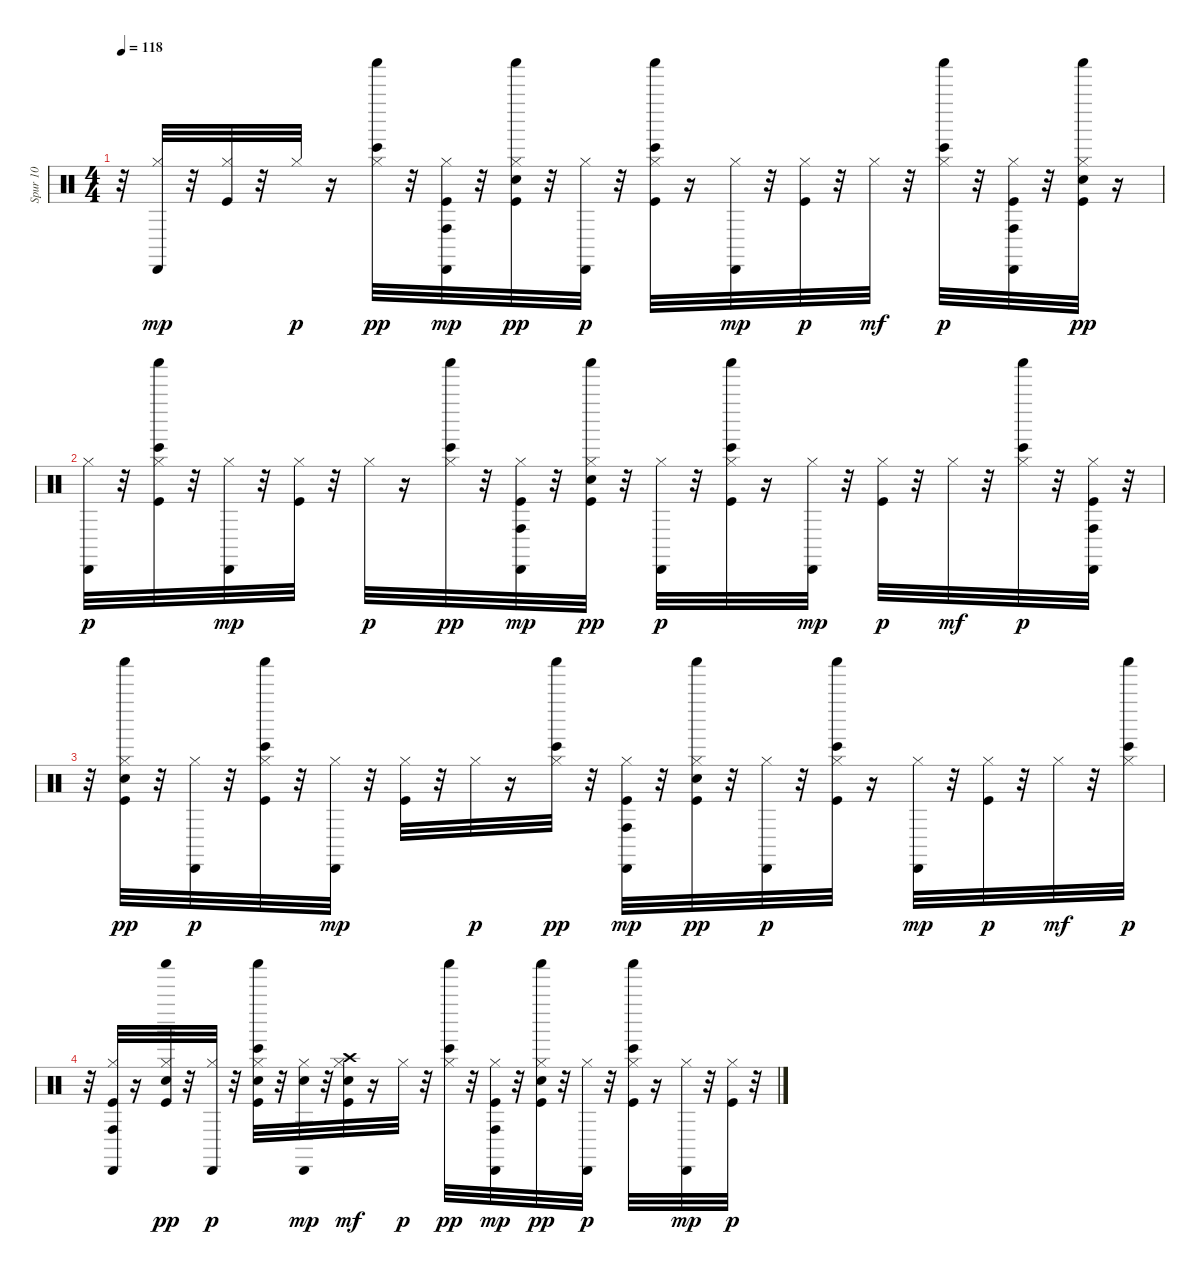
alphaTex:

\track ("Spur 10" "Spur 10") {instrument percussion}
\staff {score}
\articulation defaults
\ts (4 4)
\tempo 118
\clef neutral
\ks c
r.32{dy p} ("Hi-Hat (closed)" "Cabasa (hit)").32{dy mp} r.32 ("Kick (hit)" "Hi-Hat (closed)").32 r.32 "Hi-Hat (closed)".32{dy p} r.16 ("Hi-Hat (closed)" "Bongo High (hit)" "Shaker (hit)").32{dy pp} r.32 ("Kick (hit)" "Hi-Hat (closed)" "Conga high (hit)" "Cabasa (hit)").32{dy mp} r.32 ("Kick (hit)" "Snare (hit) 2" "Hi-Hat (closed)" "Shaker (hit)").32{dy pp} r.32 ("Hi-Hat (closed)" "Cabasa (hit)").32{dy p} r.32 ("Kick (hit)" "Hi-Hat (closed)" "Bongo High (hit)" "Shaker (hit)").32 r.16 ("Hi-Hat (closed)" "Cabasa (hit)").32{dy mp} r.32 ("Kick (hit)" "Hi-Hat (closed)").32{dy p} r.32 "Hi-Hat (closed)".32{dy mf} r.32 ("Hi-Hat (closed)" "Bongo High (hit)" "Shaker (hit)").32{dy p} r.32 ("Kick (hit)" "Hi-Hat (closed)" "Conga high (hit)" "Cabasa (hit)").32 r.32 ("Kick (hit)" "Snare (hit) 2" "Hi-Hat (closed)" "Shaker (hit)").32{dy pp} r.16 |
("Hi-Hat (closed)" "Cabasa (hit)").32{dy p} r.32 ("Kick (hit)" "Hi-Hat (closed)" "Bongo High (hit)" "Shaker (hit)").32 r.32 ("Hi-Hat (closed)" "Cabasa (hit)").32{dy mp} r.32 ("Kick (hit)" "Hi-Hat (closed)").32 r.32 "Hi-Hat (closed)".32{dy p} r.16 ("Hi-Hat (closed)" "Bongo High (hit)" "Shaker (hit)").32{dy pp} r.32 ("Kick (hit)" "Hi-Hat (closed)" "Conga high (hit)" "Cabasa (hit)").32{dy mp} r.32 ("Kick (hit)" "Snare (hit) 2" "Hi-Hat (closed)" "Shaker (hit)").32{dy pp} r.32 ("Hi-Hat (closed)" "Cabasa (hit)").32{dy p} r.32 ("Kick (hit)" "Hi-Hat (closed)" "Bongo High (hit)" "Shaker (hit)").32 r.16 ("Hi-Hat (closed)" "Cabasa (hit)").32{dy mp} r.32 ("Kick (hit)" "Hi-Hat (closed)").32{dy p} r.32 "Hi-Hat (closed)".32{dy mf} r.32 ("Hi-Hat (closed)" "Bongo High (hit)" "Shaker (hit)").32{dy p} r.32 ("Kick (hit)" "Hi-Hat (closed)" "Conga high (hit)" "Cabasa (hit)").32 r.32 |
r.32 ("Kick (hit)" "Snare (hit) 2" "Hi-Hat (closed)" "Shaker (hit)").32{dy pp} r.32 ("Hi-Hat (closed)" "Cabasa (hit)").32{dy p} r.32 ("Kick (hit)" "Hi-Hat (closed)" "Bongo High (hit)" "Shaker (hit)").32 r.32 ("Hi-Hat (closed)" "Cabasa (hit)").32{dy mp} r.32 ("Kick (hit)" "Hi-Hat (closed)").32 r.32 "Hi-Hat (closed)".32{dy p} r.16 ("Hi-Hat (closed)" "Bongo High (hit)" "Shaker (hit)").32{dy pp} r.32 ("Kick (hit)" "Hi-Hat (closed)" "Conga high (hit)" "Cabasa (hit)").32{dy mp} r.32 ("Kick (hit)" "Snare (hit) 2" "Hi-Hat (closed)" "Shaker (hit)").32{dy pp} r.32 ("Hi-Hat (closed)" "Cabasa (hit)").32{dy p} r.32 ("Kick (hit)" "Hi-Hat (closed)" "Bongo High (hit)" "Shaker (hit)").32 r.16 ("Hi-Hat (closed)" "Cabasa (hit)").32{dy mp} r.32 ("Kick (hit)" "Hi-Hat (closed)").32{dy p} r.32 "Hi-Hat (closed)".32{dy mf} r.32 ("Hi-Hat (closed)" "Bongo High (hit)" "Shaker (hit)").32{dy p} |
r.32 ("Kick (hit)" "Hi-Hat (closed)" "Conga high (hit)" "Cabasa (hit)").32 r.16 ("Kick (hit)" "Snare (hit) 2" "Hi-Hat (closed)" "Shaker (hit)").32{dy pp} r.32 ("Hi-Hat (closed)" "Cabasa (hit)").32{dy p} r.32 ("Kick (hit)" "Snare (hit) 2" "Hi-Hat (closed)" "Bongo High (hit)" "Shaker (hit)").32 r.32 ("Snare (hit) 2" "Hi-Hat (closed)" "Cabasa (hit)").32{dy mp} r.32 ("Kick (hit)" "Snare (hit) 2" "Hi-Hat (closed)" "Crash high (hit)").32{dy mf} r.16 "Hi-Hat (closed)".32{dy p} r.32 ("Hi-Hat (closed)" "Bongo High (hit)" "Shaker (hit)").32{dy pp} r.32 ("Kick (hit)" "Hi-Hat (closed)" "Conga high (hit)" "Cabasa (hit)").32{dy mp} r.32 ("Kick (hit)" "Snare (hit) 2" "Hi-Hat (closed)" "Shaker (hit)").32{dy pp} r.32 ("Hi-Hat (closed)" "Cabasa (hit)").32{dy p} r.32 ("Kick (hit)" "Hi-Hat (closed)" "Bongo High (hit)" "Shaker (hit)").32 r.16 ("Hi-Hat (closed)" "Cabasa (hit)").32{dy mp} r.32 ("Kick (hit)" "Hi-Hat (closed)").32{dy p} r.32
